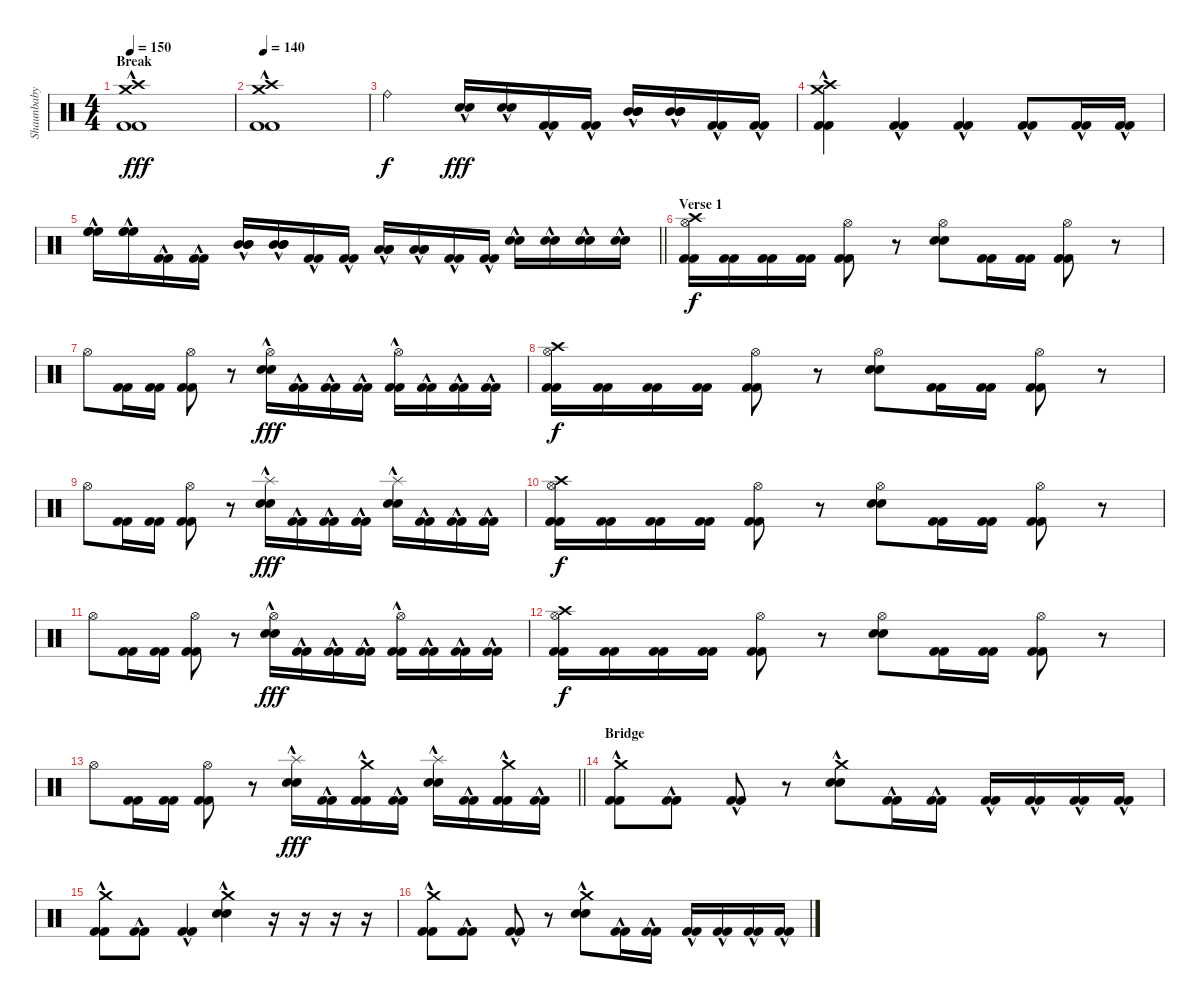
\track ("Shaunbaby" "Shaunbaby") {instrument percussion}
\staff {score}
\articulation defaults
\ts (4 4)
\section ("" "Break")
\tempo 150
\clef neutral
\ks c
("Crash high (hit)" "Crash medium (hit)" "Kick (hit) 2"{hac} "Kick (hit) 2"{hac}).1{dy fff} |
\tempo 140
("Crash high (hit)" "Crash medium (hit)" "Kick (hit) 2"{hac} "Kick (hit) 2"{hac}).1 |
"Ride (bell)".2{dy f} ("Electric Snare (hit)"{hac} "Electric Snare (hit)"{hac}).16{dy fff} ("Electric Snare (hit)"{hac} "Electric Snare (hit)"{hac}).16 ("Kick (hit) 2"{hac} "Kick (hit) 2"{hac}).16 ("Kick (hit) 2"{hac} "Kick (hit) 2"{hac}).16 ("Mid Tom (hit)"{hac} "Mid Tom (hit)"{hac} "Mid Tom (hit)"{hac}).16 ("Mid Tom (hit)"{hac} "Mid Tom (hit)"{hac} "Mid Tom (hit)"{hac}).16 ("Kick (hit) 2"{hac} "Kick (hit) 2"{hac}).16 ("Kick (hit) 2"{hac} "Kick (hit) 2"{hac}).16 |
("Crash high (hit)" "Crash medium (hit)" "Kick (hit) 2"{hac} "Kick (hit) 2"{hac}).4 ("Kick (hit) 2"{hac} "Kick (hit) 2"{hac}).4 ("Kick (hit) 2"{hac} "Kick (hit) 2"{hac}).4 ("Kick (hit) 2"{hac} "Kick (hit) 2"{hac}).8 ("Kick (hit) 2"{hac} "Kick (hit) 2"{hac}).16 ("Kick (hit) 2"{hac} "Kick (hit) 2"{hac}).16 |
\barLineRight lightlight
("High Floor Tom (hit)"{hac} "High Floor Tom (hit)"{hac} "High Floor Tom (hit)"{hac}).16 ("High Floor Tom (hit)"{hac} "High Floor Tom (hit)"{hac} "High Floor Tom (hit)"{hac}).16 ("Kick (hit) 2"{hac} "Kick (hit) 2"{hac}).16 ("Kick (hit) 2"{hac} "Kick (hit) 2"{hac}).16 ("Mid Tom (hit)"{hac} "Mid Tom (hit)"{hac} "Mid Tom (hit)"{hac}).16 ("Mid Tom (hit)"{hac} "Mid Tom (hit)"{hac} "Mid Tom (hit)"{hac}).16 ("Kick (hit) 2"{hac} "Kick (hit) 2"{hac}).16 ("Kick (hit) 2"{hac} "Kick (hit) 2"{hac}).16 ("Low Floor Tom (hit)"{hac} "Low Floor Tom (hit)"{hac} "Low Floor Tom (hit)"{hac}).16 ("Low Floor Tom (hit)"{hac} "Low Floor Tom (hit)"{hac} "Low Floor Tom (hit)"{hac}).16 ("Kick (hit) 2"{hac} "Kick (hit) 2"{hac}).16 ("Kick (hit) 2"{hac} "Kick (hit) 2"{hac}).16 ("Electric Snare (hit)"{hac} "Electric Snare (hit)"{hac}).16 ("Electric Snare (hit)"{hac} "Electric Snare (hit)"{hac}).16 ("Electric Snare (hit)"{hac} "Electric Snare (hit)"{hac}).16 ("Electric Snare (hit)"{hac} "Electric Snare (hit)"{hac}).16 |
\section ("" "Verse 1")
("Crash high (hit)" "Hi-Hat (open)" "Kick (hit) 2" "Kick (hit) 2").16{dy f} ("Kick (hit) 2" "Kick (hit) 2").16 ("Kick (hit) 2" "Kick (hit) 2").16 ("Kick (hit) 2" "Kick (hit) 2").16 ("Hi-Hat (open)" "Kick (hit) 2" "Kick (hit) 2").8 r.8 ("Hi-Hat (open)" "Electric Snare (hit)" "Electric Snare (hit)").8 ("Kick (hit) 2" "Kick (hit) 2").16 ("Kick (hit) 2" "Kick (hit) 2").16 ("Hi-Hat (open)" "Kick (hit) 2" "Kick (hit) 2").8 r.8 |
"Hi-Hat (open)".8 ("Kick (hit) 2" "Kick (hit) 2").16 ("Kick (hit) 2" "Kick (hit) 2").16 ("Hi-Hat (open)" "Kick (hit) 2" "Kick (hit) 2").8 r.8 ("Hi-Hat (open)" "Electric Snare (hit)"{hac} "Electric Snare (hit)"{hac}).16{dy fff} ("Kick (hit) 2"{hac} "Kick (hit) 2"{hac}).16 ("Kick (hit) 2"{hac} "Kick (hit) 2"{hac}).16 ("Kick (hit) 2"{hac} "Kick (hit) 2"{hac}).16 ("Hi-Hat (open)" "Kick (hit) 2"{hac} "Kick (hit) 2"{hac}).16 ("Kick (hit) 2"{hac} "Kick (hit) 2"{hac}).16 ("Kick (hit) 2"{hac} "Kick (hit) 2"{hac}).16 ("Kick (hit) 2"{hac} "Kick (hit) 2"{hac}).16 |
("Crash high (hit)" "Hi-Hat (open)" "Kick (hit) 2" "Kick (hit) 2").16{dy f} ("Kick (hit) 2" "Kick (hit) 2").16 ("Kick (hit) 2" "Kick (hit) 2").16 ("Kick (hit) 2" "Kick (hit) 2").16 ("Hi-Hat (open)" "Kick (hit) 2" "Kick (hit) 2").8 r.8 ("Hi-Hat (open)" "Electric Snare (hit)" "Electric Snare (hit)").8 ("Kick (hit) 2" "Kick (hit) 2").16 ("Kick (hit) 2" "Kick (hit) 2").16 ("Hi-Hat (open)" "Kick (hit) 2" "Kick (hit) 2").8 r.8 |
"Hi-Hat (open)".8 ("Kick (hit) 2" "Kick (hit) 2").16 ("Kick (hit) 2" "Kick (hit) 2").16 ("Hi-Hat (open)" "Kick (hit) 2" "Kick (hit) 2").8 r.8 ("Splash (hit)" "Electric Snare (hit)"{hac} "Electric Snare (hit)"{hac}).16{dy fff} ("Kick (hit) 2"{hac} "Kick (hit) 2"{hac}).16 ("Kick (hit) 2"{hac} "Kick (hit) 2"{hac}).16 ("Kick (hit) 2"{hac} "Kick (hit) 2"{hac}).16 ("Splash (hit)" "Electric Snare (hit)"{hac} "Electric Snare (hit)"{hac}).16 ("Kick (hit) 2"{hac} "Kick (hit) 2"{hac}).16 ("Kick (hit) 2"{hac} "Kick (hit) 2"{hac}).16 ("Kick (hit) 2"{hac} "Kick (hit) 2"{hac}).16 |
("Crash high (hit)" "Hi-Hat (open)" "Kick (hit) 2" "Kick (hit) 2").16{dy f} ("Kick (hit) 2" "Kick (hit) 2").16 ("Kick (hit) 2" "Kick (hit) 2").16 ("Kick (hit) 2" "Kick (hit) 2").16 ("Hi-Hat (open)" "Kick (hit) 2" "Kick (hit) 2").8 r.8 ("Hi-Hat (open)" "Electric Snare (hit)" "Electric Snare (hit)").8 ("Kick (hit) 2" "Kick (hit) 2").16 ("Kick (hit) 2" "Kick (hit) 2").16 ("Hi-Hat (open)" "Kick (hit) 2" "Kick (hit) 2").8 r.8 |
"Hi-Hat (open)".8 ("Kick (hit) 2" "Kick (hit) 2").16 ("Kick (hit) 2" "Kick (hit) 2").16 ("Hi-Hat (open)" "Kick (hit) 2" "Kick (hit) 2").8 r.8 ("Hi-Hat (open)" "Electric Snare (hit)"{hac} "Electric Snare (hit)"{hac}).16{dy fff} ("Kick (hit) 2"{hac} "Kick (hit) 2"{hac}).16 ("Kick (hit) 2"{hac} "Kick (hit) 2"{hac}).16 ("Kick (hit) 2"{hac} "Kick (hit) 2"{hac}).16 ("Hi-Hat (open)" "Kick (hit) 2"{hac} "Kick (hit) 2"{hac}).16 ("Kick (hit) 2"{hac} "Kick (hit) 2"{hac}).16 ("Kick (hit) 2"{hac} "Kick (hit) 2"{hac}).16 ("Kick (hit) 2"{hac} "Kick (hit) 2"{hac}).16 |
("Crash high (hit)" "Hi-Hat (open)" "Kick (hit) 2" "Kick (hit) 2").16{dy f} ("Kick (hit) 2" "Kick (hit) 2").16 ("Kick (hit) 2" "Kick (hit) 2").16 ("Kick (hit) 2" "Kick (hit) 2").16 ("Hi-Hat (open)" "Kick (hit) 2" "Kick (hit) 2").8 r.8 ("Hi-Hat (open)" "Electric Snare (hit)" "Electric Snare (hit)").8 ("Kick (hit) 2" "Kick (hit) 2").16 ("Kick (hit) 2" "Kick (hit) 2").16 ("Hi-Hat (open)" "Kick (hit) 2" "Kick (hit) 2").8 r.8 |
\barLineRight lightlight "Hi-Hat (open)".8
("Kick (hit) 2" "Kick (hit) 2").16 ("Kick (hit) 2" "Kick (hit) 2").16 ("Hi-Hat (open)" "Kick (hit) 2" "Kick (hit) 2").8 r.8 ("Splash (hit)" "Electric Snare (hit)"{hac} "Electric Snare (hit)"{hac}).16{dy fff} ("Kick (hit) 2"{hac} "Kick (hit) 2"{hac}).16 ("Crash medium (hit)" "Kick (hit) 2"{hac} "Kick (hit) 2"{hac}).16 ("Kick (hit) 2"{hac} "Kick (hit) 2"{hac}).16 ("Splash (hit)" "Electric Snare (hit)"{hac} "Electric Snare (hit)"{hac}).16 ("Kick (hit) 2"{hac} "Kick (hit) 2"{hac}).16 ("Crash medium (hit)" "Kick (hit) 2"{hac} "Kick (hit) 2"{hac}).16 ("Kick (hit) 2"{hac} "Kick (hit) 2"{hac}).16 |
\section ("" "Bridge")
("Crash medium (hit)" "Kick (hit) 2"{hac} "Kick (hit) 2"{hac}).8 ("Kick (hit) 2"{hac} "Kick (hit) 2"{hac}).8 ("Kick (hit) 2"{hac} "Kick (hit) 2"{hac}).8 r.8 ("Crash medium (hit)" "Electric Snare (hit)"{hac} "Electric Snare (hit)"{hac}).8 ("Kick (hit) 2"{hac} "Kick (hit) 2"{hac}).16 ("Kick (hit) 2"{hac} "Kick (hit) 2"{hac}).16 ("Kick (hit) 2"{hac} "Kick (hit) 2"{hac}).16 ("Kick (hit) 2"{hac} "Kick (hit) 2"{hac}).16 ("Kick (hit) 2"{hac} "Kick (hit) 2"{hac}).16 ("Kick (hit) 2"{hac} "Kick (hit) 2"{hac}).16 |
("Crash medium (hit)" "Kick (hit) 2"{hac} "Kick (hit) 2"{hac}).8 ("Kick (hit) 2"{hac} "Kick (hit) 2"{hac}).8 ("Kick (hit) 2"{hac} "Kick (hit) 2"{hac}).4 ("Crash medium (hit)" "Electric Snare (hit)"{hac} "Electric Snare (hit)"{hac}).4 r.16 r.16 r.16 r.16 |
("Crash medium (hit)" "Kick (hit) 2"{hac} "Kick (hit) 2"{hac}).8 ("Kick (hit) 2"{hac} "Kick (hit) 2"{hac}).8 ("Kick (hit) 2"{hac} "Kick (hit) 2"{hac}).8 r.8 ("Crash medium (hit)" "Electric Snare (hit)"{hac} "Electric Snare (hit)"{hac}).8 ("Kick (hit) 2"{hac} "Kick (hit) 2"{hac}).16 ("Kick (hit) 2"{hac} "Kick (hit) 2"{hac}).16 ("Kick (hit) 2"{hac} "Kick (hit) 2"{hac}).16 ("Kick (hit) 2"{hac} "Kick (hit) 2"{hac}).16 ("Kick (hit) 2"{hac} "Kick (hit) 2"{hac}).16 ("Kick (hit) 2"{hac} "Kick (hit) 2"{hac}).16
